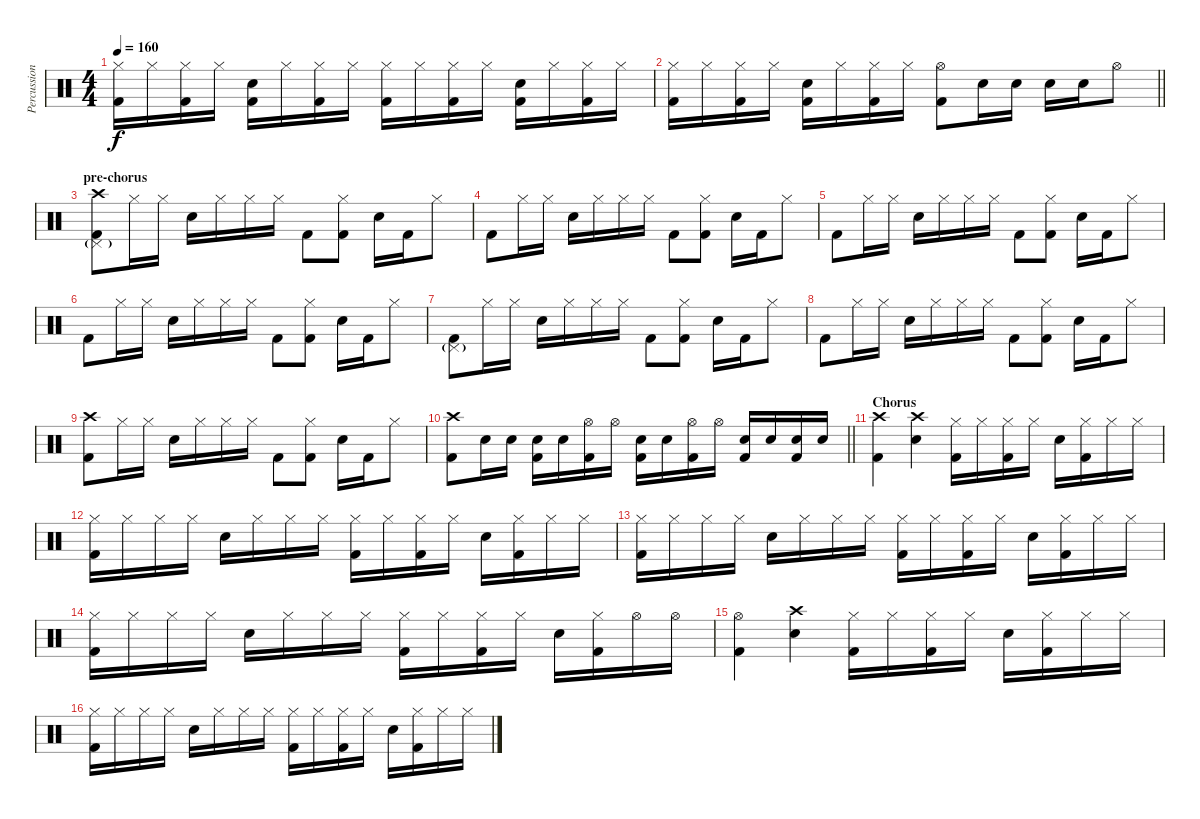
\track ("Percussion" "Percussion") {instrument percussion}
\staff {score}
\articulation defaults
\ts (4 4)
\tempo 160
\clef neutral
\ks c
("Hi-Hat (closed)" "Kick (hit) 2").16{dy f} "Hi-Hat (closed)".16 ("Hi-Hat (closed)" "Kick (hit) 2").16 "Hi-Hat (closed)".16 ("Electric Snare (hit)" "Kick (hit) 2").16 "Hi-Hat (closed)".16 ("Hi-Hat (closed)" "Kick (hit) 2").16 "Hi-Hat (closed)".16 ("Hi-Hat (closed)" "Kick (hit) 2").16 "Hi-Hat (closed)".16 ("Hi-Hat (closed)" "Kick (hit) 2").16 "Hi-Hat (closed)".16 ("Electric Snare (hit)" "Kick (hit) 2").16 "Hi-Hat (closed)".16 ("Hi-Hat (closed)" "Kick (hit) 2").16 "Hi-Hat (closed)".16 |
\barLineRight lightlight
("Hi-Hat (closed)" "Kick (hit) 2").16 "Hi-Hat (closed)".16 ("Hi-Hat (closed)" "Kick (hit) 2").16 "Hi-Hat (closed)".16 ("Electric Snare (hit)" "Kick (hit) 2").16 "Hi-Hat (closed)".16 ("Hi-Hat (closed)" "Kick (hit) 2").16 "Hi-Hat (closed)".16 ("Hi-Hat (open)" "Kick (hit) 2").8 "Electric Snare (hit)".16 "Electric Snare (hit)".16 "Electric Snare (hit)".16 "Electric Snare (hit)".16 "Hi-Hat (open)".8 |
\section ("" "pre-chorus")
("Crash high (hit)" "Pedal Hi-Hat (hit)"{g} "Kick (hit) 2").8 "Hi-Hat (closed)".16 "Hi-Hat (closed)".16 "Electric Snare (hit)".16 "Hi-Hat (closed)".16 "Hi-Hat (closed)".16 "Hi-Hat (closed)".16 "Kick (hit) 2".8 ("Hi-Hat (closed)" "Kick (hit) 2").8 "Electric Snare (hit)".16 "Kick (hit) 2".16 "Hi-Hat (closed)".8 |
"Kick (hit) 2".8 "Hi-Hat (closed)".16 "Hi-Hat (closed)".16 "Electric Snare (hit)".16 "Hi-Hat (closed)".16 "Hi-Hat (closed)".16 "Hi-Hat (closed)".16 "Kick (hit) 2".8 ("Hi-Hat (closed)" "Kick (hit) 2").8 "Electric Snare (hit)".16 "Kick (hit) 2".16 "Hi-Hat (closed)".8 |
"Kick (hit) 2".8 "Hi-Hat (closed)".16 "Hi-Hat (closed)".16 "Electric Snare (hit)".16 "Hi-Hat (closed)".16 "Hi-Hat (closed)".16 "Hi-Hat (closed)".16 "Kick (hit) 2".8 ("Hi-Hat (closed)" "Kick (hit) 2").8 "Electric Snare (hit)".16 "Kick (hit) 2".16 "Hi-Hat (closed)".8 |
"Kick (hit) 2".8 "Hi-Hat (closed)".16 "Hi-Hat (closed)".16 "Electric Snare (hit)".16 "Hi-Hat (closed)".16 "Hi-Hat (closed)".16 "Hi-Hat (closed)".16 "Kick (hit) 2".8 ("Hi-Hat (closed)" "Kick (hit) 2").8 "Electric Snare (hit)".16 "Kick (hit) 2".16 "Hi-Hat (closed)".8 |
("Pedal Hi-Hat (hit)"{g} "Kick (hit) 2").8 "Hi-Hat (closed)".16 "Hi-Hat (closed)".16 "Electric Snare (hit)".16 "Hi-Hat (closed)".16 "Hi-Hat (closed)".16 "Hi-Hat (closed)".16 "Kick (hit) 2".8 ("Hi-Hat (closed)" "Kick (hit) 2").8 "Electric Snare (hit)".16 "Kick (hit) 2".16 "Hi-Hat (closed)".8 |
"Kick (hit) 2".8 "Hi-Hat (closed)".16 "Hi-Hat (closed)".16 "Electric Snare (hit)".16 "Hi-Hat (closed)".16 "Hi-Hat (closed)".16 "Hi-Hat (closed)".16 "Kick (hit) 2".8 ("Hi-Hat (closed)" "Kick (hit) 2").8 "Electric Snare (hit)".16 "Kick (hit) 2".16 "Hi-Hat (closed)".8 |
("Crash high (hit)" "Kick (hit) 2").8 "Hi-Hat (closed)".16 "Hi-Hat (closed)".16 "Electric Snare (hit)".16 "Hi-Hat (closed)".16 "Hi-Hat (closed)".16 "Hi-Hat (closed)".16 "Kick (hit) 2".8 ("Hi-Hat (closed)" "Kick (hit) 2").8 "Electric Snare (hit)".16 "Kick (hit) 2".16 "Hi-Hat (closed)".8 |
\barLineRight lightlight
("Crash high (hit)" "Kick (hit) 2").8 "Electric Snare (hit)".16 "Electric Snare (hit)".16 ("Electric Snare (hit)" "Kick (hit) 2").16 "Electric Snare (hit)".16 ("Hi-Hat (open)" "Kick (hit) 2").16 "Hi-Hat (open)".16 ("Electric Snare (hit)" "Kick (hit) 2").16 "Electric Snare (hit)".16 ("Hi-Hat (open)" "Kick (hit) 2").16 "Hi-Hat (open)".16 ("Electric Snare (hit)" "Kick (hit) 2").16 "Electric Snare (hit)".16 ("Electric Snare (hit)" "Kick (hit) 2").16 "Electric Snare (hit)".16 |
\section ("" "Chorus")
("Crash high (hit)" "Kick (hit) 2").4 ("Crash high (hit)" "Electric Snare (hit)").4 ("Hi-Hat (closed)" "Kick (hit) 2").16 "Hi-Hat (closed)".16 ("Hi-Hat (closed)" "Kick (hit) 2").16 "Hi-Hat (closed)".16 "Electric Snare (hit)".16 ("Hi-Hat (closed)" "Kick (hit) 2").16 "Hi-Hat (closed)".16 "Hi-Hat (closed)".16 |
("Hi-Hat (closed)" "Kick (hit) 2").16 "Hi-Hat (closed)".16 "Hi-Hat (closed)".16 "Hi-Hat (closed)".16 "Electric Snare (hit)".16 "Hi-Hat (closed)".16 "Hi-Hat (closed)".16 "Hi-Hat (closed)".16 ("Hi-Hat (closed)" "Kick (hit) 2").16 "Hi-Hat (closed)".16 ("Hi-Hat (closed)" "Kick (hit) 2").16 "Hi-Hat (closed)".16 "Electric Snare (hit)".16 ("Hi-Hat (closed)" "Kick (hit) 2").16 "Hi-Hat (closed)".16 "Hi-Hat (closed)".16 |
("Hi-Hat (closed)" "Kick (hit) 2").16 "Hi-Hat (closed)".16 "Hi-Hat (closed)".16 "Hi-Hat (closed)".16 "Electric Snare (hit)".16 "Hi-Hat (closed)".16 "Hi-Hat (closed)".16 "Hi-Hat (closed)".16 ("Hi-Hat (closed)" "Kick (hit) 2").16 "Hi-Hat (closed)".16 ("Hi-Hat (closed)" "Kick (hit) 2").16 "Hi-Hat (closed)".16 "Electric Snare (hit)".16 ("Hi-Hat (closed)" "Kick (hit) 2").16 "Hi-Hat (closed)".16 "Hi-Hat (closed)".16 |
("Hi-Hat (closed)" "Kick (hit) 2").16 "Hi-Hat (closed)".16 "Hi-Hat (closed)".16 "Hi-Hat (closed)".16 "Electric Snare (hit)".16 "Hi-Hat (closed)".16 "Hi-Hat (closed)".16 "Hi-Hat (closed)".16 ("Hi-Hat (closed)" "Kick (hit) 2").16 "Hi-Hat (closed)".16 ("Hi-Hat (closed)" "Kick (hit) 2").16 "Hi-Hat (closed)".16 "Electric Snare (hit)".16 ("Hi-Hat (closed)" "Kick (hit) 2").16 "Hi-Hat (open)".16 "Hi-Hat (open)".16 |
("Hi-Hat (open)" "Kick (hit) 2").4 ("Crash high (hit)" "Electric Snare (hit)").4 ("Hi-Hat (closed)" "Kick (hit) 2").16 "Hi-Hat (closed)".16 ("Hi-Hat (closed)" "Kick (hit) 2").16 "Hi-Hat (closed)".16 "Electric Snare (hit)".16 ("Hi-Hat (closed)" "Kick (hit) 2").16 "Hi-Hat (closed)".16 "Hi-Hat (closed)".16 |
("Hi-Hat (closed)" "Kick (hit) 2").16 "Hi-Hat (closed)".16 "Hi-Hat (closed)".16 "Hi-Hat (closed)".16 "Electric Snare (hit)".16 "Hi-Hat (closed)".16 "Hi-Hat (closed)".16 "Hi-Hat (closed)".16 ("Hi-Hat (closed)" "Kick (hit) 2").16 "Hi-Hat (closed)".16 ("Hi-Hat (closed)" "Kick (hit) 2").16 "Hi-Hat (closed)".16 "Electric Snare (hit)".16 ("Hi-Hat (closed)" "Kick (hit) 2").16 "Hi-Hat (closed)".16 "Hi-Hat (closed)".16
